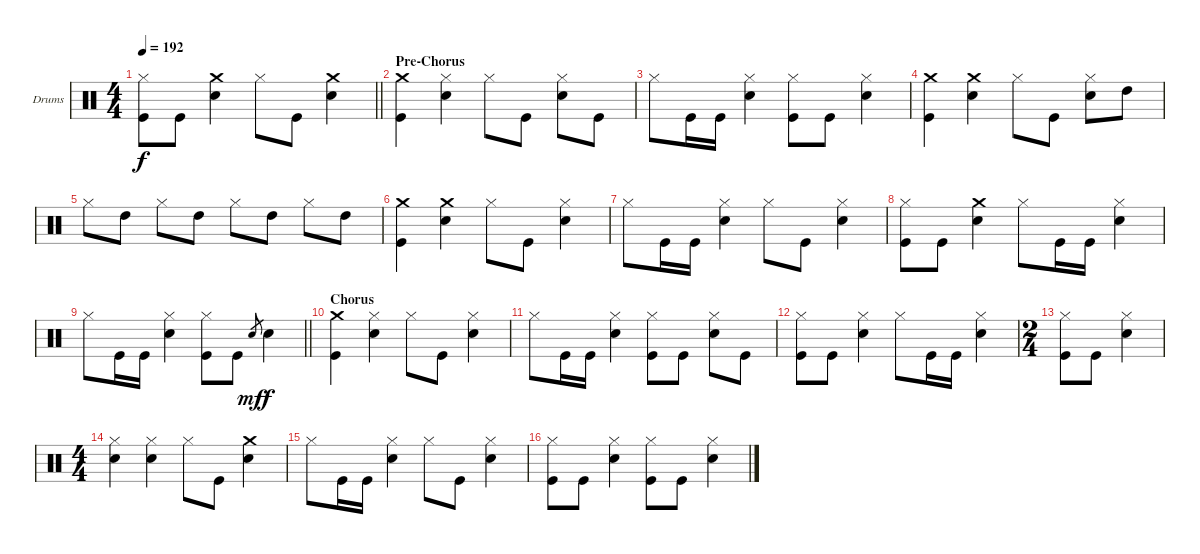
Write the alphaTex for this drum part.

\bracketExtendMode groupsimilarinstruments
\firstSystemTrackNameOrientation horizontal
\otherSystemsTrackNameOrientation horizontal
\track ("Lars Ulrich" "Drums") {instrument percussion}
\staff {score}
\articulation defaults
\ts (4 4)
\tempo 192
\clef neutral
\barLineRight lightlight
\ks c
("Hi-Hat (closed)" "Kick (hit)").8{dy f} "Kick (hit)".8 ("Crash medium (hit)" "Snare (hit) 2").4 "Hi-Hat (closed)".8 "Kick (hit)".8 ("Crash medium (hit)" "Snare (hit) 2").4 |
\section ("" "Pre-Chorus")
("Crash medium (hit)" "Kick (hit)").4 ("Hi-Hat (closed)" "Snare (hit) 2").4 "Hi-Hat (closed)".8 "Kick (hit)".8 ("Hi-Hat (closed)" "Snare (hit) 2").8 "Kick (hit)".8 |
"Hi-Hat (closed)".8 "Kick (hit)".16 "Kick (hit)".16 ("Hi-Hat (closed)" "Snare (hit) 2").4 ("Hi-Hat (closed)" "Kick (hit)").8 "Kick (hit)".8 ("Hi-Hat (closed)" "Snare (hit) 2").4 |
("Crash medium (hit)" "Kick (hit)").4 ("Crash medium (hit)" "Snare (hit) 2").4 "Hi-Hat (closed)".8 "Kick (hit)".8 ("Hi-Hat (closed)" "Snare (hit) 2").8 "High Tom (hit)".8 |
"Hi-Hat (closed)".8 "High Tom (hit)".8 "Hi-Hat (closed)".8 "High Tom (hit)".8 "Hi-Hat (closed)".8 "High Tom (hit)".8 "Hi-Hat (closed)".8 "High Tom (hit)".8 |
("Crash medium (hit)" "Kick (hit)").4 ("Crash medium (hit)" "Snare (hit) 2").4 "Hi-Hat (closed)".8 "Kick (hit)".8 ("Hi-Hat (closed)" "Snare (hit) 2").4 |
"Hi-Hat (closed)".8 "Kick (hit)".16 "Kick (hit)".16 ("Hi-Hat (closed)" "Snare (hit) 2").4 "Hi-Hat (closed)".8 "Kick (hit)".8 ("Hi-Hat (closed)" "Snare (hit) 2").4 |
("Hi-Hat (closed)" "Kick (hit)").8 "Kick (hit)".8 ("Crash medium (hit)" "Snare (hit) 2").4 "Hi-Hat (closed)".8 "Kick (hit)".16 "Kick (hit)".16 ("Hi-Hat (closed)" "Snare (hit) 2").4 |
\barLineRight lightlight "Hi-Hat (closed)".8 "Kick (hit)".16 "Kick (hit)".16
("Hi-Hat (closed)" "Snare (hit) 2").4 ("Hi-Hat (closed)" "Kick (hit)").8 "Kick (hit)".8 "Snare (hit) 2".8{gr dy mf} "Snare (hit) 2".4{dy f} |
\section ("" "Chorus")
("Crash medium (hit)" "Kick (hit)").4 ("Hi-Hat (closed)" "Snare (hit) 2").4 "Hi-Hat (closed)".8 "Kick (hit)".8 ("Hi-Hat (closed)" "Snare (hit) 2").4 |
"Hi-Hat (closed)".8 "Kick (hit)".16 "Kick (hit)".16 ("Hi-Hat (closed)" "Snare (hit) 2").4 ("Hi-Hat (closed)" "Kick (hit)").8 "Kick (hit)".8 ("Hi-Hat (closed)" "Snare (hit) 2").8 "Kick (hit)".8 |
("Hi-Hat (closed)" "Kick (hit)").8 "Kick (hit)".8 ("Hi-Hat (closed)" "Snare (hit) 2").4 "Hi-Hat (closed)".8 "Kick (hit)".16 "Kick (hit)".16 ("Hi-Hat (closed)" "Snare (hit) 2").4 |
\ts (2 4)
\beaming (8 2 2)
("Hi-Hat (closed)" "Kick (hit)").8 "Kick (hit)".8 ("Hi-Hat (closed)" "Snare (hit) 2").4 |
\ts (4 4)
\beaming (8 2 2 2 2)
("Hi-Hat (closed)" "Snare (hit) 2").4 ("Hi-Hat (closed)" "Snare (hit) 2").4 "Hi-Hat (closed)".8 "Kick (hit)".8 ("Crash medium (hit)" "Snare (hit) 2").4 |
"Hi-Hat (closed)".8 "Kick (hit)".16 "Kick (hit)".16 ("Hi-Hat (closed)" "Snare (hit) 2").4 "Hi-Hat (closed)".8 "Kick (hit)".8 ("Hi-Hat (closed)" "Snare (hit) 2").4 |
("Hi-Hat (closed)" "Kick (hit)").8 "Kick (hit)".8 ("Hi-Hat (closed)" "Snare (hit) 2").4 ("Hi-Hat (closed)" "Kick (hit)").8 "Kick (hit)".8 ("Hi-Hat (closed)" "Snare (hit) 2").4
